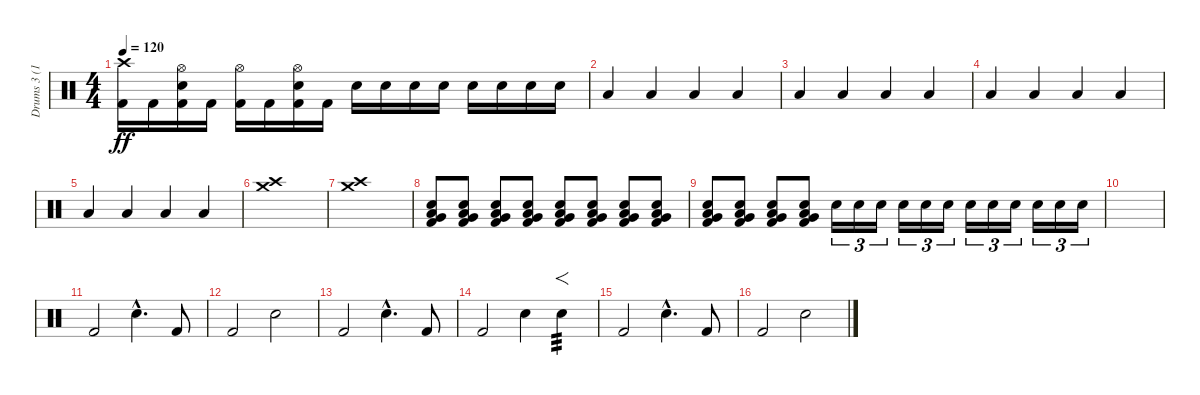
\track ("Drums 3 (16)" "Drums 3 (1") {instrument percussion}
\staff {score}
\articulation defaults
\ts (4 4)
\tempo 120
\clef neutral
\ks c
("Kick (hit) 2" "Crash high (hit)").16{dy ff} "Kick (hit) 2".16 ("Kick (hit) 2" "Snare (hit) 2" "Hi-Hat (open)").16 "Kick (hit) 2".16 ("Kick (hit) 2" "Hi-Hat (open)").16 "Kick (hit) 2".16 ("Kick (hit) 2" "Snare (hit) 2" "Hi-Hat (open)").16 "Kick (hit) 2".16 "Snare (hit) 2".16 "Snare (hit) 2".16 "Snare (hit) 2".16 "Snare (hit) 2".16 "Snare (hit) 2".16 "Snare (hit) 2".16 "Snare (hit) 2".16 "Snare (hit) 2".16 |
"Low Floor Tom (hit)".4 "Low Floor Tom (hit)".4 "Low Floor Tom (hit)".4 "Low Floor Tom (hit)".4 |
"Low Floor Tom (hit)".4 "Low Floor Tom (hit)".4 "Low Floor Tom (hit)".4 "Low Floor Tom (hit)".4 |
"Low Floor Tom (hit)".4 "Low Floor Tom (hit)".4 "Low Floor Tom (hit)".4 "Low Floor Tom (hit)".4 |
"Low Floor Tom (hit)".4 "Low Floor Tom (hit)".4 "Low Floor Tom (hit)".4 "Low Floor Tom (hit)".4 |
("Crash high (hit)" "Crash medium (hit)").1 |
("Crash high (hit)" "Crash medium (hit)").1 |
("Kick (hit) 2" "Snare (hit) 2" "Low Floor Tom (hit)" "Very Low Tom (hit)").8{volume 4} ("Kick (hit) 2" "Snare (hit) 2" "Low Floor Tom (hit)" "Very Low Tom (hit)").8{volume 5} ("Kick (hit) 2" "Snare (hit) 2" "Low Floor Tom (hit)" "Very Low Tom (hit)").8{volume 6} ("Kick (hit) 2" "Snare (hit) 2" "Low Floor Tom (hit)" "Very Low Tom (hit)").8{volume 7} ("Kick (hit) 2" "Snare (hit) 2" "Low Floor Tom (hit)" "Very Low Tom (hit)").8{volume 8} ("Kick (hit) 2" "Snare (hit) 2" "Low Floor Tom (hit)" "Very Low Tom (hit)").8{volume 9} ("Kick (hit) 2" "Snare (hit) 2" "Low Floor Tom (hit)" "Very Low Tom (hit)").8{volume 10} ("Kick (hit) 2" "Snare (hit) 2" "Low Floor Tom (hit)" "Very Low Tom (hit)").8{volume 11} |
("Kick (hit) 2" "Snare (hit) 2" "Low Floor Tom (hit)" "Very Low Tom (hit)").8{volume 12} ("Kick (hit) 2" "Snare (hit) 2" "Low Floor Tom (hit)" "Very Low Tom (hit)").8{volume 13} ("Kick (hit) 2" "Snare (hit) 2" "Low Floor Tom (hit)" "Very Low Tom (hit)").8{volume 14} ("Kick (hit) 2" "Snare (hit) 2" "Low Floor Tom (hit)" "Very Low Tom (hit)").8{volume 15} "Snare (hit) 2".16{tu (3 2) volume 16 balance 15} "Snare (hit) 2".16{tu (3 2)} "Snare (hit) 2".16{tu (3 2) balance 15} "Snare (hit) 2".16{tu (3 2) balance 8} "Snare (hit) 2".16{tu (3 2)} "Snare (hit) 2".16{tu (3 2) balance 8} "Snare (hit) 2".16{tu (3 2) balance 1} "Snare (hit) 2".16{tu (3 2)} "Snare (hit) 2".16{tu (3 2) balance 1} "Snare (hit) 2".16{tu (3 2) balance 8} "Snare (hit) 2".16{tu (3 2)} "Snare (hit) 2".16{tu (3 2) balance 8} |
|
"Kick (hit) 2".2 "Snare (hit) 2"{hac}.4{d} "Kick (hit) 2".8 |
"Kick (hit) 2".2 "Snare (hit) 2".2 |
"Kick (hit) 2".2 "Snare (hit) 2"{hac}.4{d} "Kick (hit) 2".8 |
"Kick (hit) 2".2 "Snare (hit) 2".4 "Snare (hit) 2".4{f tp 3} |
"Kick (hit) 2".2 "Snare (hit) 2"{hac}.4{d} "Kick (hit) 2".8 |
"Kick (hit) 2".2 "Snare (hit) 2".2
